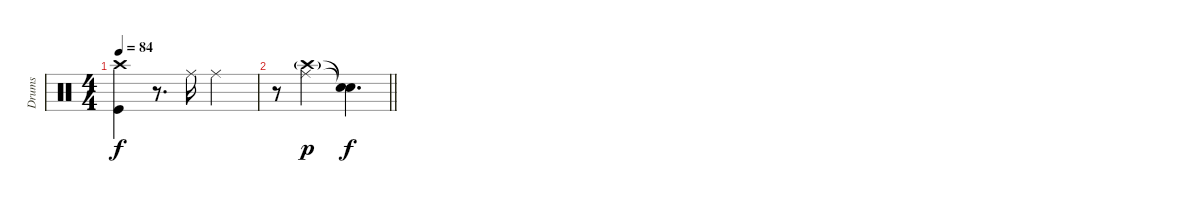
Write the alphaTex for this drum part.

\track ("Drums" "Drums") {instrument percussion}
\staff {score}
\articulation defaults
\ts (4 4)
\tempo 84
\clef neutral
\ks c
("Crash high (hit)" "Kick (hit)").4{dy f} r.8{d} "Ride (middle)".16 "Ride (middle)".2 |
\barLineRight lightlight
r.8 ("Crash high (hit)"{g} "Ride (middle)").2{dy p volume 0} ("Snare (hit)"{t} "Snare (hit)"{t}).4{d dy f}
